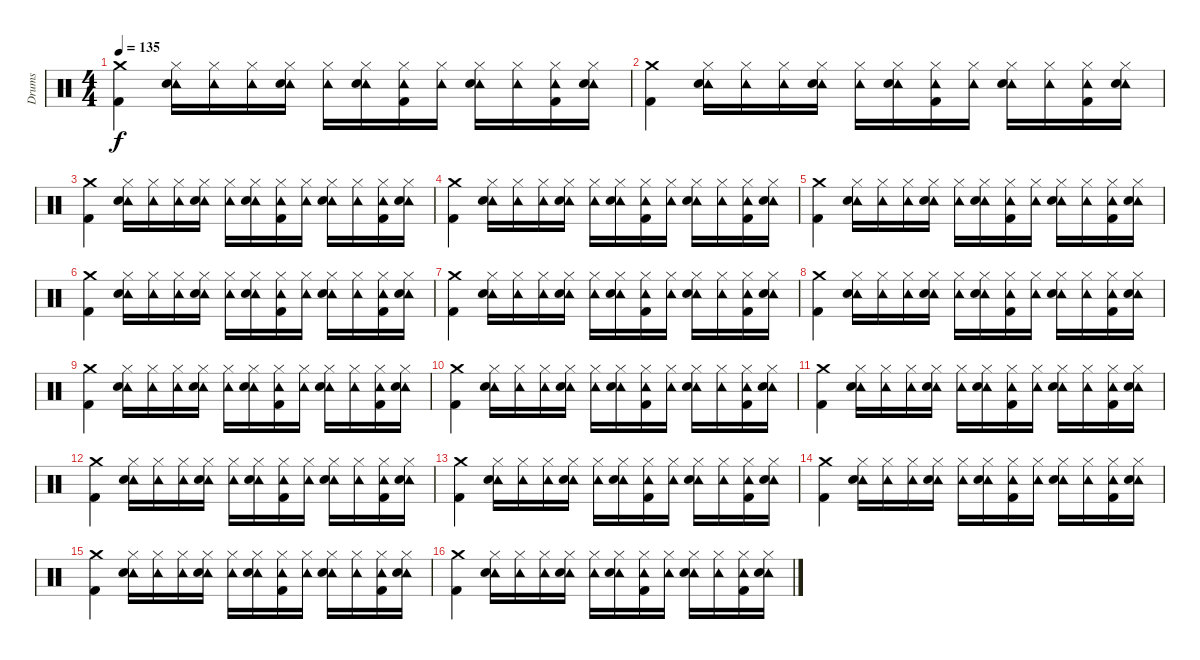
\track ("Drums" "Drums") {instrument percussion}
\staff {score}
\articulation defaults
\ts (4 4)
\tempo 135
\clef neutral
\ks c
("Crash medium (hit)" "Kick (hit) 2").4{dy f} ("Hi-Hat (closed)" "Tambourine (hit)" "Snare (hit) 2").16 ("Hi-Hat (closed)" "Tambourine (hit)").16 ("Hi-Hat (closed)" "Tambourine (hit)").16 ("Hi-Hat (closed)" "Tambourine (hit)" "Snare (hit) 2").16 ("Hi-Hat (closed)" "Tambourine (hit)").16 ("Hi-Hat (closed)" "Tambourine (hit)" "Snare (hit) 2").16 ("Hi-Hat (closed)" "Tambourine (hit)" "Kick (hit) 2").16 ("Hi-Hat (closed)" "Tambourine (hit)").16 ("Hi-Hat (closed)" "Tambourine (hit)" "Snare (hit) 2").16 ("Hi-Hat (closed)" "Tambourine (hit)").16 ("Hi-Hat (closed)" "Tambourine (hit)" "Kick (hit) 2").16 ("Hi-Hat (closed)" "Tambourine (hit)" "Snare (hit) 2").16 |
("Crash medium (hit)" "Kick (hit) 2").4 ("Hi-Hat (closed)" "Tambourine (hit)" "Snare (hit) 2").16 ("Hi-Hat (closed)" "Tambourine (hit)").16 ("Hi-Hat (closed)" "Tambourine (hit)").16 ("Hi-Hat (closed)" "Tambourine (hit)" "Snare (hit) 2").16 ("Hi-Hat (closed)" "Tambourine (hit)").16 ("Hi-Hat (closed)" "Tambourine (hit)" "Snare (hit) 2").16 ("Hi-Hat (closed)" "Tambourine (hit)" "Kick (hit) 2").16 ("Hi-Hat (closed)" "Tambourine (hit)").16 ("Hi-Hat (closed)" "Tambourine (hit)" "Snare (hit) 2").16 ("Hi-Hat (closed)" "Tambourine (hit)").16 ("Hi-Hat (closed)" "Tambourine (hit)" "Kick (hit) 2").16 ("Hi-Hat (closed)" "Tambourine (hit)" "Snare (hit) 2").16 |
("Crash medium (hit)" "Kick (hit) 2").4 ("Hi-Hat (closed)" "Tambourine (hit)" "Snare (hit) 2").16 ("Hi-Hat (closed)" "Tambourine (hit)").16 ("Hi-Hat (closed)" "Tambourine (hit)").16 ("Hi-Hat (closed)" "Tambourine (hit)" "Snare (hit) 2").16 ("Hi-Hat (closed)" "Tambourine (hit)").16 ("Hi-Hat (closed)" "Tambourine (hit)" "Snare (hit) 2").16 ("Hi-Hat (closed)" "Tambourine (hit)" "Kick (hit) 2").16 ("Hi-Hat (closed)" "Tambourine (hit)").16 ("Hi-Hat (closed)" "Tambourine (hit)" "Snare (hit) 2").16 ("Hi-Hat (closed)" "Tambourine (hit)").16 ("Hi-Hat (closed)" "Tambourine (hit)" "Kick (hit) 2").16 ("Hi-Hat (closed)" "Tambourine (hit)" "Snare (hit) 2").16 |
("Crash medium (hit)" "Kick (hit) 2").4 ("Hi-Hat (closed)" "Tambourine (hit)" "Snare (hit) 2").16 ("Hi-Hat (closed)" "Tambourine (hit)").16 ("Hi-Hat (closed)" "Tambourine (hit)").16 ("Hi-Hat (closed)" "Tambourine (hit)" "Snare (hit) 2").16 ("Hi-Hat (closed)" "Tambourine (hit)").16 ("Hi-Hat (closed)" "Tambourine (hit)" "Snare (hit) 2").16 ("Hi-Hat (closed)" "Tambourine (hit)" "Kick (hit) 2").16 ("Hi-Hat (closed)" "Tambourine (hit)").16 ("Hi-Hat (closed)" "Tambourine (hit)" "Snare (hit) 2").16 ("Hi-Hat (closed)" "Tambourine (hit)").16 ("Hi-Hat (closed)" "Tambourine (hit)" "Kick (hit) 2").16 ("Hi-Hat (closed)" "Tambourine (hit)" "Snare (hit) 2").16 |
("Crash medium (hit)" "Kick (hit) 2").4 ("Hi-Hat (closed)" "Tambourine (hit)" "Snare (hit) 2").16 ("Hi-Hat (closed)" "Tambourine (hit)").16 ("Hi-Hat (closed)" "Tambourine (hit)").16 ("Hi-Hat (closed)" "Tambourine (hit)" "Snare (hit) 2").16 ("Hi-Hat (closed)" "Tambourine (hit)").16 ("Hi-Hat (closed)" "Tambourine (hit)" "Snare (hit) 2").16 ("Hi-Hat (closed)" "Tambourine (hit)" "Kick (hit) 2").16 ("Hi-Hat (closed)" "Tambourine (hit)").16 ("Hi-Hat (closed)" "Tambourine (hit)" "Snare (hit) 2").16 ("Hi-Hat (closed)" "Tambourine (hit)").16 ("Hi-Hat (closed)" "Tambourine (hit)" "Kick (hit) 2").16 ("Hi-Hat (closed)" "Tambourine (hit)" "Snare (hit) 2").16 |
("Crash medium (hit)" "Kick (hit) 2").4 ("Hi-Hat (closed)" "Tambourine (hit)" "Snare (hit) 2").16 ("Hi-Hat (closed)" "Tambourine (hit)").16 ("Hi-Hat (closed)" "Tambourine (hit)").16 ("Hi-Hat (closed)" "Tambourine (hit)" "Snare (hit) 2").16 ("Hi-Hat (closed)" "Tambourine (hit)").16 ("Hi-Hat (closed)" "Tambourine (hit)" "Snare (hit) 2").16 ("Hi-Hat (closed)" "Tambourine (hit)" "Kick (hit) 2").16 ("Hi-Hat (closed)" "Tambourine (hit)").16 ("Hi-Hat (closed)" "Tambourine (hit)" "Snare (hit) 2").16 ("Hi-Hat (closed)" "Tambourine (hit)").16 ("Hi-Hat (closed)" "Tambourine (hit)" "Kick (hit) 2").16 ("Hi-Hat (closed)" "Tambourine (hit)" "Snare (hit) 2").16 |
("Crash medium (hit)" "Kick (hit) 2").4 ("Hi-Hat (closed)" "Tambourine (hit)" "Snare (hit) 2").16 ("Hi-Hat (closed)" "Tambourine (hit)").16 ("Hi-Hat (closed)" "Tambourine (hit)").16 ("Hi-Hat (closed)" "Tambourine (hit)" "Snare (hit) 2").16 ("Hi-Hat (closed)" "Tambourine (hit)").16 ("Hi-Hat (closed)" "Tambourine (hit)" "Snare (hit) 2").16 ("Hi-Hat (closed)" "Tambourine (hit)" "Kick (hit) 2").16 ("Hi-Hat (closed)" "Tambourine (hit)").16 ("Hi-Hat (closed)" "Tambourine (hit)" "Snare (hit) 2").16 ("Hi-Hat (closed)" "Tambourine (hit)").16 ("Hi-Hat (closed)" "Tambourine (hit)" "Kick (hit) 2").16 ("Hi-Hat (closed)" "Tambourine (hit)" "Snare (hit) 2").16 |
("Crash medium (hit)" "Kick (hit) 2").4 ("Hi-Hat (closed)" "Tambourine (hit)" "Snare (hit) 2").16 ("Hi-Hat (closed)" "Tambourine (hit)").16 ("Hi-Hat (closed)" "Tambourine (hit)").16 ("Hi-Hat (closed)" "Tambourine (hit)" "Snare (hit) 2").16 ("Hi-Hat (closed)" "Tambourine (hit)").16 ("Hi-Hat (closed)" "Tambourine (hit)" "Snare (hit) 2").16 ("Hi-Hat (closed)" "Tambourine (hit)" "Kick (hit) 2").16 ("Hi-Hat (closed)" "Tambourine (hit)").16 ("Hi-Hat (closed)" "Tambourine (hit)" "Snare (hit) 2").16 ("Hi-Hat (closed)" "Tambourine (hit)").16 ("Hi-Hat (closed)" "Tambourine (hit)" "Kick (hit) 2").16 ("Hi-Hat (closed)" "Tambourine (hit)" "Snare (hit) 2").16 |
("Crash medium (hit)" "Kick (hit) 2").4 ("Hi-Hat (closed)" "Tambourine (hit)" "Snare (hit) 2").16 ("Hi-Hat (closed)" "Tambourine (hit)").16 ("Hi-Hat (closed)" "Tambourine (hit)").16 ("Hi-Hat (closed)" "Tambourine (hit)" "Snare (hit) 2").16 ("Hi-Hat (closed)" "Tambourine (hit)").16 ("Hi-Hat (closed)" "Tambourine (hit)" "Snare (hit) 2").16 ("Hi-Hat (closed)" "Tambourine (hit)" "Kick (hit) 2").16 ("Hi-Hat (closed)" "Tambourine (hit)").16 ("Hi-Hat (closed)" "Tambourine (hit)" "Snare (hit) 2").16 ("Hi-Hat (closed)" "Tambourine (hit)").16 ("Hi-Hat (closed)" "Tambourine (hit)" "Kick (hit) 2").16 ("Hi-Hat (closed)" "Tambourine (hit)" "Snare (hit) 2").16 |
("Crash medium (hit)" "Kick (hit) 2").4 ("Hi-Hat (closed)" "Tambourine (hit)" "Snare (hit) 2").16 ("Hi-Hat (closed)" "Tambourine (hit)").16 ("Hi-Hat (closed)" "Tambourine (hit)").16 ("Hi-Hat (closed)" "Tambourine (hit)" "Snare (hit) 2").16 ("Hi-Hat (closed)" "Tambourine (hit)").16 ("Hi-Hat (closed)" "Tambourine (hit)" "Snare (hit) 2").16 ("Hi-Hat (closed)" "Tambourine (hit)" "Kick (hit) 2").16 ("Hi-Hat (closed)" "Tambourine (hit)").16 ("Hi-Hat (closed)" "Tambourine (hit)" "Snare (hit) 2").16 ("Hi-Hat (closed)" "Tambourine (hit)").16 ("Hi-Hat (closed)" "Tambourine (hit)" "Kick (hit) 2").16 ("Hi-Hat (closed)" "Tambourine (hit)" "Snare (hit) 2").16 |
("Crash medium (hit)" "Kick (hit) 2").4 ("Hi-Hat (closed)" "Tambourine (hit)" "Snare (hit) 2").16 ("Hi-Hat (closed)" "Tambourine (hit)").16 ("Hi-Hat (closed)" "Tambourine (hit)").16 ("Hi-Hat (closed)" "Tambourine (hit)" "Snare (hit) 2").16 ("Hi-Hat (closed)" "Tambourine (hit)").16 ("Hi-Hat (closed)" "Tambourine (hit)" "Snare (hit) 2").16 ("Hi-Hat (closed)" "Tambourine (hit)" "Kick (hit) 2").16 ("Hi-Hat (closed)" "Tambourine (hit)").16 ("Hi-Hat (closed)" "Tambourine (hit)" "Snare (hit) 2").16 ("Hi-Hat (closed)" "Tambourine (hit)").16 ("Hi-Hat (closed)" "Tambourine (hit)" "Kick (hit) 2").16 ("Hi-Hat (closed)" "Tambourine (hit)" "Snare (hit) 2").16 |
("Crash medium (hit)" "Kick (hit) 2").4 ("Hi-Hat (closed)" "Tambourine (hit)" "Snare (hit) 2").16 ("Hi-Hat (closed)" "Tambourine (hit)").16 ("Hi-Hat (closed)" "Tambourine (hit)").16 ("Hi-Hat (closed)" "Tambourine (hit)" "Snare (hit) 2").16 ("Hi-Hat (closed)" "Tambourine (hit)").16 ("Hi-Hat (closed)" "Tambourine (hit)" "Snare (hit) 2").16 ("Hi-Hat (closed)" "Tambourine (hit)" "Kick (hit) 2").16 ("Hi-Hat (closed)" "Tambourine (hit)").16 ("Hi-Hat (closed)" "Tambourine (hit)" "Snare (hit) 2").16 ("Hi-Hat (closed)" "Tambourine (hit)").16 ("Hi-Hat (closed)" "Tambourine (hit)" "Kick (hit) 2").16 ("Hi-Hat (closed)" "Tambourine (hit)" "Snare (hit) 2").16 |
("Crash medium (hit)" "Kick (hit) 2").4 ("Hi-Hat (closed)" "Tambourine (hit)" "Snare (hit) 2").16 ("Hi-Hat (closed)" "Tambourine (hit)").16 ("Hi-Hat (closed)" "Tambourine (hit)").16 ("Hi-Hat (closed)" "Tambourine (hit)" "Snare (hit) 2").16 ("Hi-Hat (closed)" "Tambourine (hit)").16 ("Hi-Hat (closed)" "Tambourine (hit)" "Snare (hit) 2").16 ("Hi-Hat (closed)" "Tambourine (hit)" "Kick (hit) 2").16 ("Hi-Hat (closed)" "Tambourine (hit)").16 ("Hi-Hat (closed)" "Tambourine (hit)" "Snare (hit) 2").16 ("Hi-Hat (closed)" "Tambourine (hit)").16 ("Hi-Hat (closed)" "Tambourine (hit)" "Kick (hit) 2").16 ("Hi-Hat (closed)" "Tambourine (hit)" "Snare (hit) 2").16 |
("Crash medium (hit)" "Kick (hit) 2").4 ("Hi-Hat (closed)" "Tambourine (hit)" "Snare (hit) 2").16 ("Hi-Hat (closed)" "Tambourine (hit)").16 ("Hi-Hat (closed)" "Tambourine (hit)").16 ("Hi-Hat (closed)" "Tambourine (hit)" "Snare (hit) 2").16 ("Hi-Hat (closed)" "Tambourine (hit)").16 ("Hi-Hat (closed)" "Tambourine (hit)" "Snare (hit) 2").16 ("Hi-Hat (closed)" "Tambourine (hit)" "Kick (hit) 2").16 ("Hi-Hat (closed)" "Tambourine (hit)").16 ("Hi-Hat (closed)" "Tambourine (hit)" "Snare (hit) 2").16 ("Hi-Hat (closed)" "Tambourine (hit)").16 ("Hi-Hat (closed)" "Tambourine (hit)" "Kick (hit) 2").16 ("Hi-Hat (closed)" "Tambourine (hit)" "Snare (hit) 2").16 |
("Crash medium (hit)" "Kick (hit) 2").4 ("Hi-Hat (closed)" "Tambourine (hit)" "Snare (hit) 2").16 ("Hi-Hat (closed)" "Tambourine (hit)").16 ("Hi-Hat (closed)" "Tambourine (hit)").16 ("Hi-Hat (closed)" "Tambourine (hit)" "Snare (hit) 2").16 ("Hi-Hat (closed)" "Tambourine (hit)").16 ("Hi-Hat (closed)" "Tambourine (hit)" "Snare (hit) 2").16 ("Hi-Hat (closed)" "Tambourine (hit)" "Kick (hit) 2").16 ("Hi-Hat (closed)" "Tambourine (hit)").16 ("Hi-Hat (closed)" "Tambourine (hit)" "Snare (hit) 2").16 ("Hi-Hat (closed)" "Tambourine (hit)").16 ("Hi-Hat (closed)" "Tambourine (hit)" "Kick (hit) 2").16 ("Hi-Hat (closed)" "Tambourine (hit)" "Snare (hit) 2").16 |
("Crash medium (hit)" "Kick (hit) 2").4 ("Hi-Hat (closed)" "Tambourine (hit)" "Snare (hit) 2").16 ("Hi-Hat (closed)" "Tambourine (hit)").16 ("Hi-Hat (closed)" "Tambourine (hit)").16 ("Hi-Hat (closed)" "Tambourine (hit)" "Snare (hit) 2").16 ("Hi-Hat (closed)" "Tambourine (hit)").16 ("Hi-Hat (closed)" "Tambourine (hit)" "Snare (hit) 2").16 ("Hi-Hat (closed)" "Tambourine (hit)" "Kick (hit) 2").16 ("Hi-Hat (closed)" "Tambourine (hit)").16 ("Hi-Hat (closed)" "Tambourine (hit)" "Snare (hit) 2").16 ("Hi-Hat (closed)" "Tambourine (hit)").16 ("Hi-Hat (closed)" "Tambourine (hit)" "Kick (hit) 2").16 ("Hi-Hat (closed)" "Tambourine (hit)" "Snare (hit) 2").16
